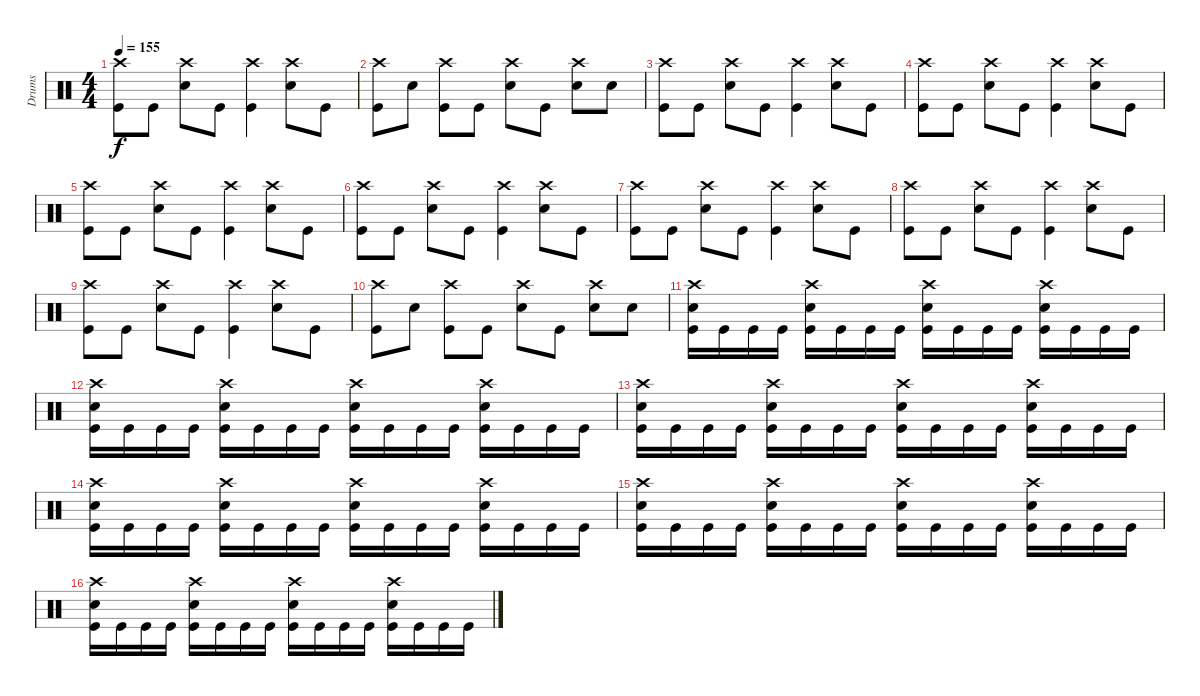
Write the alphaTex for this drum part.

\track ("Drums" "Drums") {instrument percussion}
\staff {score}
\articulation defaults
\ts (4 4)
\tempo 155
\clef neutral
\ks c
("Crash high (hit)" "Kick (hit)").8{dy f} "Kick (hit)".8 ("Crash high (hit)" "Snare (hit) 2").8 "Kick (hit)".8 ("Crash high (hit)" "Kick (hit)").4 ("Crash high (hit)" "Snare (hit) 2").8 "Kick (hit)".8 |
("Crash high (hit)" "Kick (hit)").8 "Snare (hit) 2".8 ("Crash high (hit)" "Kick (hit)").8 "Kick (hit)".8 ("Crash high (hit)" "Snare (hit) 2").8 "Kick (hit)".8 ("Crash high (hit)" "Snare (hit) 2").8 "Snare (hit) 2".8 |
("Crash high (hit)" "Kick (hit)").8 "Kick (hit)".8 ("Crash high (hit)" "Snare (hit) 2").8 "Kick (hit)".8 ("Crash high (hit)" "Kick (hit)").4 ("Crash high (hit)" "Snare (hit) 2").8 "Kick (hit)".8 |
("Crash high (hit)" "Kick (hit)").8 "Kick (hit)".8 ("Crash high (hit)" "Snare (hit) 2").8 "Kick (hit)".8 ("Crash high (hit)" "Kick (hit)").4 ("Crash high (hit)" "Snare (hit) 2").8 "Kick (hit)".8 |
("Crash high (hit)" "Kick (hit)").8 "Kick (hit)".8 ("Crash high (hit)" "Snare (hit) 2").8 "Kick (hit)".8 ("Crash high (hit)" "Kick (hit)").4 ("Crash high (hit)" "Snare (hit) 2").8 "Kick (hit)".8 |
("Crash high (hit)" "Kick (hit)").8 "Kick (hit)".8 ("Crash high (hit)" "Snare (hit) 2").8 "Kick (hit)".8 ("Crash high (hit)" "Kick (hit)").4 ("Crash high (hit)" "Snare (hit) 2").8 "Kick (hit)".8 |
("Crash high (hit)" "Kick (hit)").8 "Kick (hit)".8 ("Crash high (hit)" "Snare (hit) 2").8 "Kick (hit)".8 ("Crash high (hit)" "Kick (hit)").4 ("Crash high (hit)" "Snare (hit) 2").8 "Kick (hit)".8 |
("Crash high (hit)" "Kick (hit)").8 "Kick (hit)".8 ("Crash high (hit)" "Snare (hit) 2").8 "Kick (hit)".8 ("Crash high (hit)" "Kick (hit)").4 ("Crash high (hit)" "Snare (hit) 2").8 "Kick (hit)".8 |
("Crash high (hit)" "Kick (hit)").8 "Kick (hit)".8 ("Crash high (hit)" "Snare (hit) 2").8 "Kick (hit)".8 ("Crash high (hit)" "Kick (hit)").4 ("Crash high (hit)" "Snare (hit) 2").8 "Kick (hit)".8 |
("Crash high (hit)" "Kick (hit)").8 "Snare (hit) 2".8 ("Crash high (hit)" "Kick (hit)").8 "Kick (hit)".8 ("Crash high (hit)" "Snare (hit) 2").8 "Kick (hit)".8 ("Crash high (hit)" "Snare (hit) 2").8 "Snare (hit) 2".8 |
("Crash high (hit)" "Snare (hit) 2" "Kick (hit)").16 "Kick (hit)".16 "Kick (hit)".16 "Kick (hit)".16 ("Crash high (hit)" "Snare (hit) 2" "Kick (hit)").16 "Kick (hit)".16 "Kick (hit)".16 "Kick (hit)".16 ("Crash high (hit)" "Snare (hit) 2" "Kick (hit)").16 "Kick (hit)".16 "Kick (hit)".16 "Kick (hit)".16 ("Crash high (hit)" "Snare (hit) 2" "Kick (hit)").16 "Kick (hit)".16 "Kick (hit)".16 "Kick (hit)".16 |
("Crash high (hit)" "Snare (hit) 2" "Kick (hit)").16 "Kick (hit)".16 "Kick (hit)".16 "Kick (hit)".16 ("Crash high (hit)" "Snare (hit) 2" "Kick (hit)").16 "Kick (hit)".16 "Kick (hit)".16 "Kick (hit)".16 ("Crash high (hit)" "Snare (hit) 2" "Kick (hit)").16 "Kick (hit)".16 "Kick (hit)".16 "Kick (hit)".16 ("Crash high (hit)" "Snare (hit) 2" "Kick (hit)").16 "Kick (hit)".16 "Kick (hit)".16 "Kick (hit)".16 |
("Crash high (hit)" "Snare (hit) 2" "Kick (hit)").16 "Kick (hit)".16 "Kick (hit)".16 "Kick (hit)".16 ("Crash high (hit)" "Snare (hit) 2" "Kick (hit)").16 "Kick (hit)".16 "Kick (hit)".16 "Kick (hit)".16 ("Crash high (hit)" "Snare (hit) 2" "Kick (hit)").16 "Kick (hit)".16 "Kick (hit)".16 "Kick (hit)".16 ("Crash high (hit)" "Snare (hit) 2" "Kick (hit)").16 "Kick (hit)".16 "Kick (hit)".16 "Kick (hit)".16 |
("Crash high (hit)" "Snare (hit) 2" "Kick (hit)").16 "Kick (hit)".16 "Kick (hit)".16 "Kick (hit)".16 ("Crash high (hit)" "Snare (hit) 2" "Kick (hit)").16 "Kick (hit)".16 "Kick (hit)".16 "Kick (hit)".16 ("Crash high (hit)" "Snare (hit) 2" "Kick (hit)").16 "Kick (hit)".16 "Kick (hit)".16 "Kick (hit)".16 ("Crash high (hit)" "Snare (hit) 2" "Kick (hit)").16 "Kick (hit)".16 "Kick (hit)".16 "Kick (hit)".16 |
("Crash high (hit)" "Snare (hit) 2" "Kick (hit)").16 "Kick (hit)".16 "Kick (hit)".16 "Kick (hit)".16 ("Crash high (hit)" "Snare (hit) 2" "Kick (hit)").16 "Kick (hit)".16 "Kick (hit)".16 "Kick (hit)".16 ("Crash high (hit)" "Snare (hit) 2" "Kick (hit)").16 "Kick (hit)".16 "Kick (hit)".16 "Kick (hit)".16 ("Crash high (hit)" "Snare (hit) 2" "Kick (hit)").16 "Kick (hit)".16 "Kick (hit)".16 "Kick (hit)".16 |
("Crash high (hit)" "Snare (hit) 2" "Kick (hit)").16 "Kick (hit)".16 "Kick (hit)".16 "Kick (hit)".16 ("Crash high (hit)" "Snare (hit) 2" "Kick (hit)").16 "Kick (hit)".16 "Kick (hit)".16 "Kick (hit)".16 ("Crash high (hit)" "Snare (hit) 2" "Kick (hit)").16 "Kick (hit)".16 "Kick (hit)".16 "Kick (hit)".16 ("Crash high (hit)" "Snare (hit) 2" "Kick (hit)").16 "Kick (hit)".16 "Kick (hit)".16 "Kick (hit)".16
